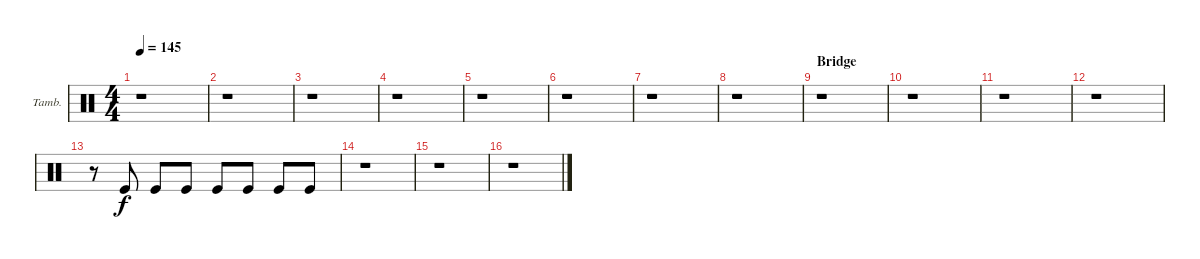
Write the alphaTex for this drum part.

\defaultSystemsLayout 4
\bracketExtendMode groupsimilarinstruments
\firstSystemTrackNameOrientation horizontal
\otherSystemsTrackNameOrientation horizontal
\track ("Matt Uychich Tambourine" "Tamb.") {instrument percussion}
\staff {score}
\articulation defaults
\ts (4 4)
\tempo 145
\clef neutral
\scale
0.333333
\ks c
r.1{dy f} |
\scale
0.333333 r.1 |
\scale
0.333333 r.1 |
\scale
0.333333 r.1 |
\scale
0.333333 r.1 |
\scale
0.333333 r.1 |
\scale
0.333333 r.1 |
\scale
0.333333 r.1 |
\section ("" "Bridge")
\scale
0.333333 r.1 |
\scale
0.333333 r.1 |
\scale
0.333333 r.1 |
\scale
0.333333 r.1 |
\scale
0.333333 r.8 "Kick (hit)".8 "Kick (hit)".8 "Kick (hit)".8 "Kick (hit)".8 "Kick (hit)".8 "Kick (hit)".8 "Kick (hit)".8 |
\scale
0.333333 r.1 |
\scale
0.333333 r.1 |
\scale
0.333333 r.1
